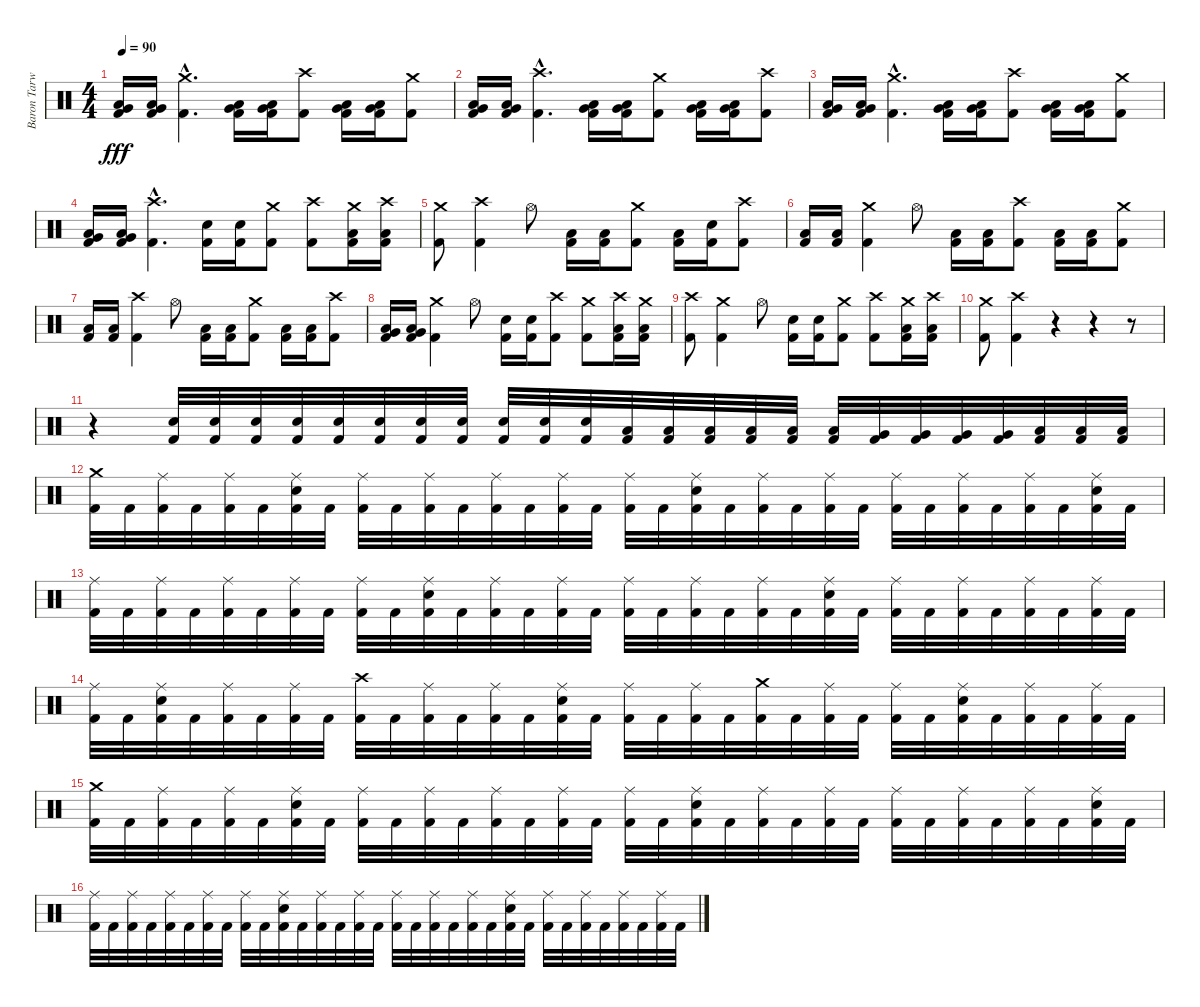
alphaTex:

\track ("Baron Tarwonen" "Baron Tarw") {instrument percussion}
\staff {score}
\articulation defaults
\ts (4 4)
\tempo 90
\clef neutral
\ks c
("Very Low Tom (hit)" "Low Floor Tom (hit)" "Kick (hit) 2").16{dy fff} ("Very Low Tom (hit)" "Low Floor Tom (hit)" "Kick (hit) 2").16 ("Crash medium (hit)"{hac} "Kick (hit) 2"{hac}).4{d} ("Very Low Tom (hit)" "Low Floor Tom (hit)" "Kick (hit) 2").16 ("Very Low Tom (hit)" "Low Floor Tom (hit)" "Kick (hit) 2").16 ("Crash high (hit)" "Kick (hit) 2").8 ("Very Low Tom (hit)" "Low Floor Tom (hit)" "Kick (hit) 2").16 ("Very Low Tom (hit)" "Low Floor Tom (hit)" "Kick (hit) 2").16 ("Crash medium (hit)" "Kick (hit) 2").8 |
("Very Low Tom (hit)" "Low Floor Tom (hit)" "Kick (hit) 2").16 ("Very Low Tom (hit)" "Low Floor Tom (hit)" "Kick (hit) 2").16 ("Crash high (hit)"{hac} "Kick (hit) 2"{hac}).4{d} ("Very Low Tom (hit)" "Low Floor Tom (hit)" "Kick (hit) 2").16 ("Very Low Tom (hit)" "Low Floor Tom (hit)" "Kick (hit) 2").16 ("Crash medium (hit)" "Kick (hit) 2").8 ("Very Low Tom (hit)" "Low Floor Tom (hit)" "Kick (hit) 2").16 ("Very Low Tom (hit)" "Low Floor Tom (hit)" "Kick (hit) 2").16 ("Crash high (hit)" "Kick (hit) 2").8 |
("Very Low Tom (hit)" "Low Floor Tom (hit)" "Kick (hit) 2").16 ("Very Low Tom (hit)" "Low Floor Tom (hit)" "Kick (hit) 2").16 ("Crash medium (hit)"{hac} "Kick (hit) 2"{hac}).4{d} ("Very Low Tom (hit)" "Low Floor Tom (hit)" "Kick (hit) 2").16 ("Very Low Tom (hit)" "Low Floor Tom (hit)" "Kick (hit) 2").16 ("Crash high (hit)" "Kick (hit) 2").8 ("Very Low Tom (hit)" "Low Floor Tom (hit)" "Kick (hit) 2").16 ("Very Low Tom (hit)" "Low Floor Tom (hit)" "Kick (hit) 2").16 ("Crash medium (hit)" "Kick (hit) 2").8 |
("Very Low Tom (hit)" "Low Floor Tom (hit)" "Kick (hit) 2").16 ("Very Low Tom (hit)" "Low Floor Tom (hit)" "Kick (hit) 2").16 ("Crash high (hit)"{hac} "Kick (hit) 2"{hac}).4{d} ("Snare (hit) 2" "Kick (hit) 2").16 ("Snare (hit) 2" "Kick (hit) 2").16 ("Crash medium (hit)" "Kick (hit) 2").8 ("Crash high (hit)" "Kick (hit) 2").8 ("Crash medium (hit)" "Low Floor Tom (hit)" "Kick (hit) 2").16 ("Crash high (hit)" "Low Floor Tom (hit)" "Kick (hit) 2").16 |
("Crash medium (hit)" "Kick (hit) 2").8 ("Crash high (hit)" "Kick (hit) 2").4 "Hi-Hat (open)".8 ("Low Floor Tom (hit)" "Kick (hit) 2").16 ("Low Floor Tom (hit)" "Kick (hit) 2").16 ("Crash medium (hit)" "Kick (hit) 2").8 ("Low Floor Tom (hit)" "Kick (hit) 2").16 ("Snare (hit)" "Kick (hit) 2").16 ("Crash high (hit)" "Kick (hit) 2").8 |
("Low Floor Tom (hit)" "Kick (hit) 2").16 ("Low Floor Tom (hit)" "Kick (hit) 2").16 ("Crash medium (hit)" "Kick (hit) 2").4 "Hi-Hat (open)".8 ("Low Floor Tom (hit)" "Kick (hit) 2").16 ("Low Floor Tom (hit)" "Kick (hit) 2").16 ("Crash high (hit)" "Kick (hit) 2").8 ("Low Floor Tom (hit)" "Kick (hit) 2").16 ("Low Floor Tom (hit)" "Kick (hit) 2").16 ("Crash medium (hit)" "Kick (hit) 2").8 |
("Low Floor Tom (hit)" "Kick (hit) 2").16 ("Low Floor Tom (hit)" "Kick (hit) 2").16 ("Crash high (hit)" "Kick (hit) 2").4 "Hi-Hat (open)".8 ("Low Floor Tom (hit)" "Kick (hit) 2").16 ("Low Floor Tom (hit)" "Kick (hit) 2").16 ("Crash medium (hit)" "Kick (hit) 2").8 ("Low Floor Tom (hit)" "Kick (hit) 2").16 ("Low Floor Tom (hit)" "Kick (hit) 2").16 ("Crash high (hit)" "Kick (hit) 2").8 |
("Very Low Tom (hit)" "Low Floor Tom (hit)" "Kick (hit) 2").16 ("Very Low Tom (hit)" "Low Floor Tom (hit)" "Kick (hit) 2").16 ("Crash medium (hit)" "Kick (hit) 2").4 "Hi-Hat (open)".8 ("Snare (hit) 2" "Kick (hit) 2").16 ("Snare (hit) 2" "Kick (hit) 2").16 ("Crash high (hit)" "Kick (hit) 2").8 ("Crash medium (hit)" "Kick (hit) 2").8 ("Crash high (hit)" "Low Floor Tom (hit)" "Kick (hit) 2").16 ("Crash medium (hit)" "Low Floor Tom (hit)" "Kick (hit) 2").16 |
("Crash high (hit)" "Kick (hit) 2").8 ("Crash medium (hit)" "Kick (hit) 2").4 "Hi-Hat (open)".8 ("Snare (hit) 2" "Kick (hit) 2").16 ("Snare (hit) 2" "Kick (hit) 2").16 ("Crash medium (hit)" "Kick (hit) 2").8 ("Crash high (hit)" "Kick (hit) 2").8 ("Crash medium (hit)" "Low Floor Tom (hit)" "Kick (hit) 2").16 ("Crash high (hit)" "Low Floor Tom (hit)" "Kick (hit) 2").16 |
("Crash medium (hit)" "Kick (hit) 2").8 ("Crash high (hit)" "Kick (hit) 2").4 r.4 r.4 r.8 |
r.4 ("Snare (hit) 2" "Kick (hit) 2").32 ("Snare (hit) 2" "Kick (hit) 2").32 ("Snare (hit) 2" "Kick (hit) 2").32 ("Snare (hit) 2" "Kick (hit) 2").32 ("Snare (hit) 2" "Kick (hit) 2").32 ("Snare (hit) 2" "Kick (hit) 2").32 ("Snare (hit) 2" "Kick (hit) 2").32 ("Snare (hit) 2" "Kick (hit) 2").32 ("Snare (hit) 2" "Kick (hit) 2").32 ("Snare (hit) 2" "Kick (hit) 2").32 ("Snare (hit) 2" "Kick (hit) 2").32 ("Low Tom (hit)" "Kick (hit) 2").32 ("Low Tom (hit)" "Kick (hit) 2").32 ("Low Tom (hit)" "Kick (hit) 2").32 ("Low Tom (hit)" "Kick (hit) 2").32 ("Low Tom (hit)" "Kick (hit) 2").32 ("Low Tom (hit)" "Kick (hit) 2").32 ("Very Low Tom (hit)" "Kick (hit) 2").32 ("Very Low Tom (hit)" "Kick (hit) 2").32 ("Very Low Tom (hit)" "Kick (hit) 2").32 ("Very Low Tom (hit)" "Kick (hit) 2").32 ("Low Floor Tom (hit)" "Kick (hit) 2").32 ("Low Floor Tom (hit)" "Kick (hit) 2").32 ("Low Floor Tom (hit)" "Kick (hit) 2").32 |
("Crash medium (hit)" "Kick (hit) 2").32 "Kick (hit) 2".32 ("Ride (middle)" "Kick (hit) 2").32 "Kick (hit) 2".32 ("Ride (middle)" "Kick (hit) 2").32 "Kick (hit) 2".32 ("Ride (middle)" "Snare (hit) 2" "Kick (hit) 2").32 "Kick (hit) 2".32 ("Ride (middle)" "Kick (hit) 2").32 "Kick (hit) 2".32 ("Ride (middle)" "Kick (hit) 2").32 "Kick (hit) 2".32 ("Ride (middle)" "Kick (hit) 2").32 "Kick (hit) 2".32 ("Ride (middle)" "Kick (hit) 2").32 "Kick (hit) 2".32 ("Ride (middle)" "Kick (hit) 2").32 "Kick (hit) 2".32 ("Ride (middle)" "Snare (hit) 2" "Kick (hit) 2").32 "Kick (hit) 2".32 ("Ride (middle)" "Kick (hit) 2").32 "Kick (hit) 2".32 ("Ride (middle)" "Kick (hit) 2").32 "Kick (hit) 2".32 ("Ride (middle)" "Kick (hit) 2").32 "Kick (hit) 2".32 ("Ride (middle)" "Kick (hit) 2").32 "Kick (hit) 2".32 ("Ride (middle)" "Kick (hit) 2").32 "Kick (hit) 2".32 ("Ride (middle)" "Snare (hit) 2" "Kick (hit) 2").32 "Kick (hit) 2".32 |
("Ride (middle)" "Kick (hit) 2").32 "Kick (hit) 2".32 ("Ride (middle)" "Kick (hit) 2").32 "Kick (hit) 2".32 ("Ride (middle)" "Kick (hit) 2").32 "Kick (hit) 2".32 ("Ride (middle)" "Kick (hit) 2").32 "Kick (hit) 2".32 ("Ride (middle)" "Kick (hit) 2").32 "Kick (hit) 2".32 ("Ride (middle)" "Snare (hit) 2" "Kick (hit) 2").32 "Kick (hit) 2".32 ("Ride (middle)" "Kick (hit) 2").32 "Kick (hit) 2".32 ("Ride (middle)" "Kick (hit) 2").32 "Kick (hit) 2".32 ("Ride (middle)" "Kick (hit) 2").32 "Kick (hit) 2".32 ("Ride (middle)" "Kick (hit) 2").32 "Kick (hit) 2".32 ("Ride (middle)" "Kick (hit) 2").32 "Kick (hit) 2".32 ("Ride (middle)" "Snare (hit) 2" "Kick (hit) 2").32 "Kick (hit) 2".32 ("Ride (middle)" "Kick (hit) 2").32 "Kick (hit) 2".32 ("Ride (middle)" "Kick (hit) 2").32 "Kick (hit) 2".32 ("Ride (middle)" "Kick (hit) 2").32 "Kick (hit) 2".32 ("Ride (middle)" "Kick (hit) 2").32 "Kick (hit) 2".32 |
("Ride (middle)" "Kick (hit) 2").32 "Kick (hit) 2".32 ("Ride (middle)" "Snare (hit) 2" "Kick (hit) 2").32 "Kick (hit) 2".32 ("Ride (middle)" "Kick (hit) 2").32 "Kick (hit) 2".32 ("Ride (middle)" "Kick (hit) 2").32 "Kick (hit) 2".32 ("Crash high (hit)" "Kick (hit) 2").32 "Kick (hit) 2".32 ("Ride (middle)" "Kick (hit) 2").32 "Kick (hit) 2".32 ("Ride (middle)" "Kick (hit) 2").32 "Kick (hit) 2".32 ("Ride (middle)" "Snare (hit) 2" "Kick (hit) 2").32 "Kick (hit) 2".32 ("Ride (middle)" "Kick (hit) 2").32 "Kick (hit) 2".32 ("Ride (middle)" "Kick (hit) 2").32 "Kick (hit) 2".32 ("Crash medium (hit)" "Kick (hit) 2").32 "Kick (hit) 2".32 ("Ride (middle)" "Kick (hit) 2").32 "Kick (hit) 2".32 ("Ride (middle)" "Kick (hit) 2").32 "Kick (hit) 2".32 ("Ride (middle)" "Snare (hit) 2" "Kick (hit) 2").32 "Kick (hit) 2".32 ("Ride (middle)" "Kick (hit) 2").32 "Kick (hit) 2".32 ("Ride (middle)" "Kick (hit) 2").32 "Kick (hit) 2".32 |
("Crash medium (hit)" "Kick (hit) 2").32 "Kick (hit) 2".32 ("Ride (middle)" "Kick (hit) 2").32 "Kick (hit) 2".32 ("Ride (middle)" "Kick (hit) 2").32 "Kick (hit) 2".32 ("Ride (middle)" "Snare (hit) 2" "Kick (hit) 2").32 "Kick (hit) 2".32 ("Ride (middle)" "Kick (hit) 2").32 "Kick (hit) 2".32 ("Ride (middle)" "Kick (hit) 2").32 "Kick (hit) 2".32 ("Ride (middle)" "Kick (hit) 2").32 "Kick (hit) 2".32 ("Ride (middle)" "Kick (hit) 2").32 "Kick (hit) 2".32 ("Ride (middle)" "Kick (hit) 2").32 "Kick (hit) 2".32 ("Ride (middle)" "Snare (hit) 2" "Kick (hit) 2").32 "Kick (hit) 2".32 ("Ride (middle)" "Kick (hit) 2").32 "Kick (hit) 2".32 ("Ride (middle)" "Kick (hit) 2").32 "Kick (hit) 2".32 ("Ride (middle)" "Kick (hit) 2").32 "Kick (hit) 2".32 ("Ride (middle)" "Kick (hit) 2").32 "Kick (hit) 2".32 ("Ride (middle)" "Kick (hit) 2").32 "Kick (hit) 2".32 ("Ride (middle)" "Snare (hit) 2" "Kick (hit) 2").32 "Kick (hit) 2".32 |
("Ride (middle)" "Kick (hit) 2").32 "Kick (hit) 2".32 ("Ride (middle)" "Kick (hit) 2").32 "Kick (hit) 2".32 ("Ride (middle)" "Kick (hit) 2").32 "Kick (hit) 2".32 ("Ride (middle)" "Kick (hit) 2").32 "Kick (hit) 2".32 ("Ride (middle)" "Kick (hit) 2").32 "Kick (hit) 2".32 ("Ride (middle)" "Snare (hit) 2" "Kick (hit) 2").32 "Kick (hit) 2".32 ("Ride (middle)" "Kick (hit) 2").32 "Kick (hit) 2".32 ("Ride (middle)" "Kick (hit) 2").32 "Kick (hit) 2".32 ("Ride (middle)" "Kick (hit) 2").32 "Kick (hit) 2".32 ("Ride (middle)" "Kick (hit) 2").32 "Kick (hit) 2".32 ("Ride (middle)" "Kick (hit) 2").32 "Kick (hit) 2".32 ("Ride (middle)" "Snare (hit) 2" "Kick (hit) 2").32 "Kick (hit) 2".32 ("Ride (middle)" "Kick (hit) 2").32 "Kick (hit) 2".32 ("Ride (middle)" "Kick (hit) 2").32 "Kick (hit) 2".32 ("Ride (middle)" "Kick (hit) 2").32 "Kick (hit) 2".32 ("Ride (middle)" "Kick (hit) 2").32 "Kick (hit) 2".32
